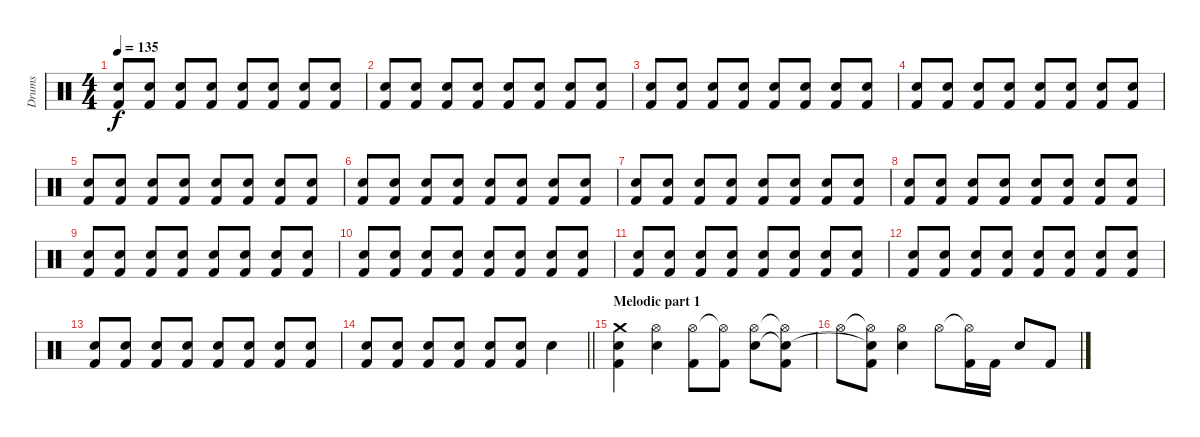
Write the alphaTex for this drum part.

\track ("Drums" "Drums") {instrument percussion}
\staff {score}
\articulation defaults
\ts (4 4)
\tempo 135
\clef neutral
\ks c
("Snare (hit) 2" "Kick (hit) 2").8{dy f} ("Snare (hit) 2" "Kick (hit) 2").8 ("Snare (hit) 2" "Kick (hit) 2").8 ("Snare (hit) 2" "Kick (hit) 2").8 ("Snare (hit) 2" "Kick (hit) 2").8 ("Snare (hit) 2" "Kick (hit) 2").8 ("Snare (hit) 2" "Kick (hit) 2").8 ("Snare (hit) 2" "Kick (hit) 2").8 |
("Snare (hit) 2" "Kick (hit) 2").8 ("Snare (hit) 2" "Kick (hit) 2").8 ("Snare (hit) 2" "Kick (hit) 2").8 ("Snare (hit) 2" "Kick (hit) 2").8 ("Snare (hit) 2" "Kick (hit) 2").8 ("Snare (hit) 2" "Kick (hit) 2").8 ("Snare (hit) 2" "Kick (hit) 2").8 ("Snare (hit) 2" "Kick (hit) 2").8 |
("Snare (hit) 2" "Kick (hit) 2").8 ("Snare (hit) 2" "Kick (hit) 2").8 ("Snare (hit) 2" "Kick (hit) 2").8{volume 8} ("Snare (hit) 2" "Kick (hit) 2").8 ("Snare (hit) 2" "Kick (hit) 2").8 ("Snare (hit) 2" "Kick (hit) 2").8 ("Snare (hit) 2" "Kick (hit) 2").8 ("Snare (hit) 2" "Kick (hit) 2").8 |
("Snare (hit) 2" "Kick (hit) 2").8 ("Snare (hit) 2" "Kick (hit) 2").8 ("Snare (hit) 2" "Kick (hit) 2").8 ("Snare (hit) 2" "Kick (hit) 2").8 ("Snare (hit) 2" "Kick (hit) 2").8 ("Snare (hit) 2" "Kick (hit) 2").8 ("Snare (hit) 2" "Kick (hit) 2").8 ("Snare (hit) 2" "Kick (hit) 2").8 |
("Snare (hit) 2" "Kick (hit) 2").8 ("Snare (hit) 2" "Kick (hit) 2").8 ("Snare (hit) 2" "Kick (hit) 2").8 ("Snare (hit) 2" "Kick (hit) 2").8 ("Snare (hit) 2" "Kick (hit) 2").8 ("Snare (hit) 2" "Kick (hit) 2").8 ("Snare (hit) 2" "Kick (hit) 2").8 ("Snare (hit) 2" "Kick (hit) 2").8 |
("Snare (hit) 2" "Kick (hit) 2").8 ("Snare (hit) 2" "Kick (hit) 2").8 ("Snare (hit) 2" "Kick (hit) 2").8 ("Snare (hit) 2" "Kick (hit) 2").8 ("Snare (hit) 2" "Kick (hit) 2").8 ("Snare (hit) 2" "Kick (hit) 2").8 ("Snare (hit) 2" "Kick (hit) 2").8 ("Snare (hit) 2" "Kick (hit) 2").8 |
("Snare (hit) 2" "Kick (hit) 2").8 ("Snare (hit) 2" "Kick (hit) 2").8 ("Snare (hit) 2" "Kick (hit) 2").8 ("Snare (hit) 2" "Kick (hit) 2").8{volume 12} ("Snare (hit) 2" "Kick (hit) 2").8 ("Snare (hit) 2" "Kick (hit) 2").8 ("Snare (hit) 2" "Kick (hit) 2").8 ("Snare (hit) 2" "Kick (hit) 2").8 |
("Snare (hit) 2" "Kick (hit) 2").8 ("Snare (hit) 2" "Kick (hit) 2").8 ("Snare (hit) 2" "Kick (hit) 2").8 ("Snare (hit) 2" "Kick (hit) 2").8 ("Snare (hit) 2" "Kick (hit) 2").8 ("Snare (hit) 2" "Kick (hit) 2").8 ("Snare (hit) 2" "Kick (hit) 2").8 ("Snare (hit) 2" "Kick (hit) 2").8 |
("Snare (hit) 2" "Kick (hit) 2").8 ("Snare (hit) 2" "Kick (hit) 2").8 ("Snare (hit) 2" "Kick (hit) 2").8 ("Snare (hit) 2" "Kick (hit) 2").8 ("Snare (hit) 2" "Kick (hit) 2").8 ("Snare (hit) 2" "Kick (hit) 2").8 ("Snare (hit) 2" "Kick (hit) 2").8 ("Snare (hit) 2" "Kick (hit) 2").8 |
("Snare (hit) 2" "Kick (hit) 2").8 ("Snare (hit) 2" "Kick (hit) 2").8 ("Snare (hit) 2" "Kick (hit) 2").8 ("Snare (hit) 2" "Kick (hit) 2").8 ("Snare (hit) 2" "Kick (hit) 2").8 ("Snare (hit) 2" "Kick (hit) 2").8 ("Snare (hit) 2" "Kick (hit) 2").8 ("Snare (hit) 2" "Kick (hit) 2").8 |
("Snare (hit) 2" "Kick (hit) 2").8 ("Snare (hit) 2" "Kick (hit) 2").8 ("Snare (hit) 2" "Kick (hit) 2").8 ("Snare (hit) 2" "Kick (hit) 2").8 ("Snare (hit) 2" "Kick (hit) 2").8{volume 16} ("Snare (hit) 2" "Kick (hit) 2").8 ("Snare (hit) 2" "Kick (hit) 2").8 ("Snare (hit) 2" "Kick (hit) 2").8 |
("Snare (hit) 2" "Kick (hit) 2").8 ("Snare (hit) 2" "Kick (hit) 2").8 ("Snare (hit) 2" "Kick (hit) 2").8 ("Snare (hit) 2" "Kick (hit) 2").8 ("Snare (hit) 2" "Kick (hit) 2").8 ("Snare (hit) 2" "Kick (hit) 2").8 ("Snare (hit) 2" "Kick (hit) 2").8 ("Snare (hit) 2" "Kick (hit) 2").8 |
("Snare (hit) 2" "Kick (hit) 2").8 ("Snare (hit) 2" "Kick (hit) 2").8 ("Snare (hit) 2" "Kick (hit) 2").8 ("Snare (hit) 2" "Kick (hit) 2").8 ("Snare (hit) 2" "Kick (hit) 2").8 ("Snare (hit) 2" "Kick (hit) 2").8 ("Snare (hit) 2" "Kick (hit) 2").8 ("Snare (hit) 2" "Kick (hit) 2").8 |
\barLineRight lightlight
("Snare (hit) 2" "Kick (hit) 2").8 ("Snare (hit) 2" "Kick (hit) 2").8 ("Snare (hit) 2" "Kick (hit) 2").8 ("Snare (hit) 2" "Kick (hit) 2").8 ("Snare (hit) 2" "Kick (hit) 2").8 ("Snare (hit) 2" "Kick (hit) 2").8 "Snare (hit) 2".4 |
\section ("" "Melodic part 1")
("Crash medium (hit)" "Snare (hit) 2" "Kick (hit) 2").4 ("Hi-Hat (open)" "Snare (hit) 2").4 ("Hi-Hat (open)" "Kick (hit) 2").8 ("Hi-Hat (open)"{t} "Kick (hit) 2").8 ("Hi-Hat (open)" "Snare (hit) 2").8 ("Hi-Hat (open)"{t} "Snare (hit) 2"{t} "Kick (hit) 2").8 |
"Hi-Hat (open)".8 ("Hi-Hat (open)"{t} "Snare (hit) 2"{t} "Kick (hit) 2").8 ("Hi-Hat (open)" "Snare (hit) 2").4 "Hi-Hat (open)".8 ("Hi-Hat (open)"{t} "Kick (hit) 2").16 "Kick (hit) 2".16 "Snare (hit) 2".8 "Kick (hit) 2".8
